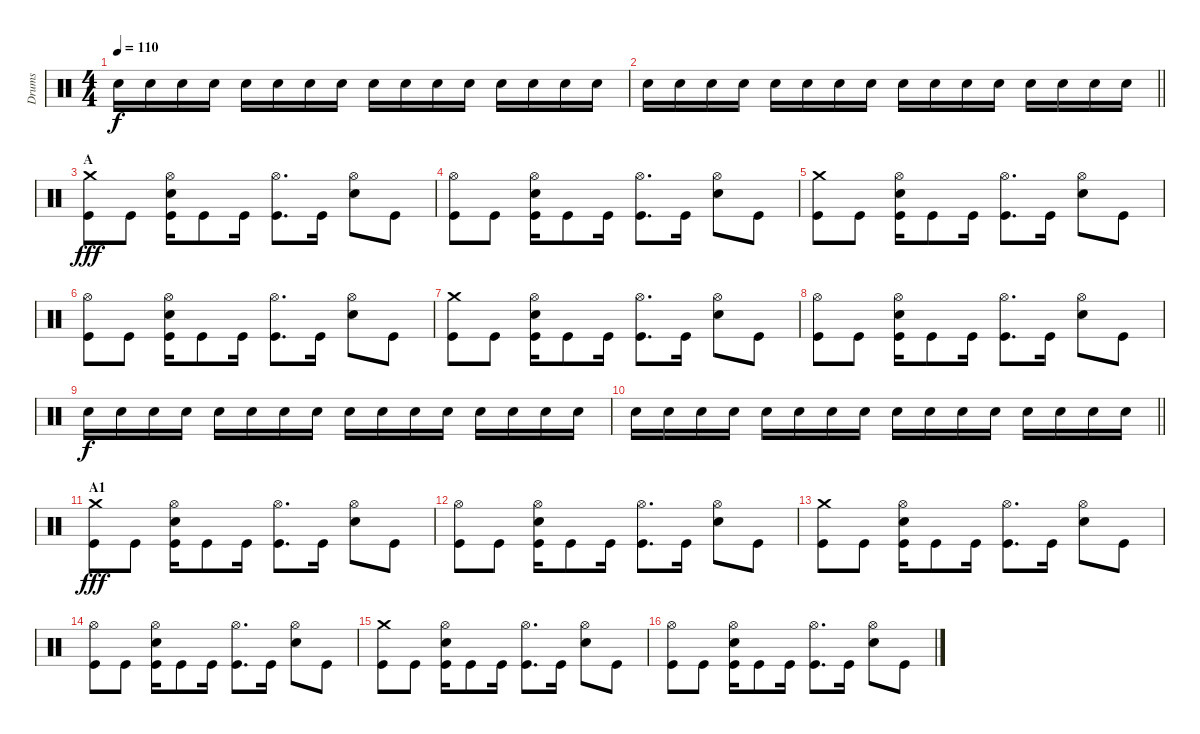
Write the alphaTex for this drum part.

\track ("Drums" "Drums") {instrument percussion}
\staff {score}
\articulation defaults
\ts (4 4)
\tempo 110
\clef neutral
\ks c "Electric Snare (hit)".16{dy f} "Electric Snare (hit)".16 "Electric Snare (hit)".16 "Electric Snare (hit)".16 "Electric Snare (hit)".16 "Electric Snare (hit)".16 "Electric Snare (hit)".16 "Electric Snare (hit)".16 "Electric Snare (hit)".16 "Electric Snare (hit)".16 "Electric Snare (hit)".16 "Electric Snare (hit)".16 "Electric Snare (hit)".16 "Electric Snare (hit)".16 "Electric Snare (hit)".16 "Electric Snare (hit)".16
|
\barLineRight lightlight "Electric Snare (hit)".16 "Electric Snare (hit)".16 "Electric Snare (hit)".16 "Electric Snare (hit)".16 "Electric Snare (hit)".16 "Electric Snare (hit)".16 "Electric Snare (hit)".16 "Electric Snare (hit)".16 "Electric Snare (hit)".16 "Electric Snare (hit)".16 "Electric Snare (hit)".16 "Electric Snare (hit)".16 "Electric Snare (hit)".16 "Electric Snare (hit)".16 "Electric Snare (hit)".16 "Electric Snare (hit)".16
|
\section ("" "A")
("Crash medium (hit)" "Kick (hit)").8{dy fff} "Kick (hit)".8 ("Hi-Hat (open)" "Electric Snare (hit)" "Kick (hit)").16 "Kick (hit)".8 "Kick (hit)".16 ("Hi-Hat (open)" "Kick (hit)").8{d} "Kick (hit)".16 ("Hi-Hat (open)" "Electric Snare (hit)").8 "Kick (hit)".8 |
("Hi-Hat (open)" "Kick (hit)").8 "Kick (hit)".8 ("Hi-Hat (open)" "Electric Snare (hit)" "Kick (hit)").16 "Kick (hit)".8 "Kick (hit)".16 ("Hi-Hat (open)" "Kick (hit)").8{d} "Kick (hit)".16 ("Hi-Hat (open)" "Electric Snare (hit)").8 "Kick (hit)".8 |
("Crash medium (hit)" "Kick (hit)").8 "Kick (hit)".8 ("Hi-Hat (open)" "Electric Snare (hit)" "Kick (hit)").16 "Kick (hit)".8 "Kick (hit)".16 ("Hi-Hat (open)" "Kick (hit)").8{d} "Kick (hit)".16 ("Hi-Hat (open)" "Electric Snare (hit)").8 "Kick (hit)".8 |
("Hi-Hat (open)" "Kick (hit)").8 "Kick (hit)".8 ("Hi-Hat (open)" "Electric Snare (hit)" "Kick (hit)").16 "Kick (hit)".8 "Kick (hit)".16 ("Hi-Hat (open)" "Kick (hit)").8{d} "Kick (hit)".16 ("Hi-Hat (open)" "Electric Snare (hit)").8 "Kick (hit)".8 |
("Crash medium (hit)" "Kick (hit)").8 "Kick (hit)".8 ("Hi-Hat (open)" "Electric Snare (hit)" "Kick (hit)").16 "Kick (hit)".8 "Kick (hit)".16 ("Hi-Hat (open)" "Kick (hit)").8{d} "Kick (hit)".16 ("Hi-Hat (open)" "Electric Snare (hit)").8 "Kick (hit)".8 |
("Hi-Hat (open)" "Kick (hit)").8 "Kick (hit)".8 ("Hi-Hat (open)" "Electric Snare (hit)" "Kick (hit)").16 "Kick (hit)".8 "Kick (hit)".16 ("Hi-Hat (open)" "Kick (hit)").8{d} "Kick (hit)".16 ("Hi-Hat (open)" "Electric Snare (hit)").8 "Kick (hit)".8 |
"Electric Snare (hit)".16{dy f} "Electric Snare (hit)".16 "Electric Snare (hit)".16 "Electric Snare (hit)".16 "Electric Snare (hit)".16 "Electric Snare (hit)".16 "Electric Snare (hit)".16 "Electric Snare (hit)".16 "Electric Snare (hit)".16 "Electric Snare (hit)".16 "Electric Snare (hit)".16 "Electric Snare (hit)".16 "Electric Snare (hit)".16 "Electric Snare (hit)".16 "Electric Snare (hit)".16 "Electric Snare (hit)".16 |
\barLineRight lightlight "Electric Snare (hit)".16 "Electric Snare (hit)".16 "Electric Snare (hit)".16 "Electric Snare (hit)".16 "Electric Snare (hit)".16 "Electric Snare (hit)".16 "Electric Snare (hit)".16 "Electric Snare (hit)".16 "Electric Snare (hit)".16 "Electric Snare (hit)".16 "Electric Snare (hit)".16 "Electric Snare (hit)".16 "Electric Snare (hit)".16 "Electric Snare (hit)".16 "Electric Snare (hit)".16 "Electric Snare (hit)".16
|
\section ("" "A1")
("Crash medium (hit)" "Kick (hit)").8{dy fff} "Kick (hit)".8 ("Hi-Hat (open)" "Electric Snare (hit)" "Kick (hit)").16 "Kick (hit)".8 "Kick (hit)".16 ("Hi-Hat (open)" "Kick (hit)").8{d} "Kick (hit)".16 ("Hi-Hat (open)" "Electric Snare (hit)").8 "Kick (hit)".8 |
("Hi-Hat (open)" "Kick (hit)").8 "Kick (hit)".8 ("Hi-Hat (open)" "Electric Snare (hit)" "Kick (hit)").16 "Kick (hit)".8 "Kick (hit)".16 ("Hi-Hat (open)" "Kick (hit)").8{d} "Kick (hit)".16 ("Hi-Hat (open)" "Electric Snare (hit)").8 "Kick (hit)".8 |
("Crash medium (hit)" "Kick (hit)").8 "Kick (hit)".8 ("Hi-Hat (open)" "Electric Snare (hit)" "Kick (hit)").16 "Kick (hit)".8 "Kick (hit)".16 ("Hi-Hat (open)" "Kick (hit)").8{d} "Kick (hit)".16 ("Hi-Hat (open)" "Electric Snare (hit)").8 "Kick (hit)".8 |
("Hi-Hat (open)" "Kick (hit)").8 "Kick (hit)".8 ("Hi-Hat (open)" "Electric Snare (hit)" "Kick (hit)").16 "Kick (hit)".8 "Kick (hit)".16 ("Hi-Hat (open)" "Kick (hit)").8{d} "Kick (hit)".16 ("Hi-Hat (open)" "Electric Snare (hit)").8 "Kick (hit)".8 |
("Crash medium (hit)" "Kick (hit)").8 "Kick (hit)".8 ("Hi-Hat (open)" "Electric Snare (hit)" "Kick (hit)").16 "Kick (hit)".8 "Kick (hit)".16 ("Hi-Hat (open)" "Kick (hit)").8{d} "Kick (hit)".16 ("Hi-Hat (open)" "Electric Snare (hit)").8 "Kick (hit)".8 |
("Hi-Hat (open)" "Kick (hit)").8 "Kick (hit)".8 ("Hi-Hat (open)" "Electric Snare (hit)" "Kick (hit)").16 "Kick (hit)".8 "Kick (hit)".16 ("Hi-Hat (open)" "Kick (hit)").8{d} "Kick (hit)".16 ("Hi-Hat (open)" "Electric Snare (hit)").8 "Kick (hit)".8
